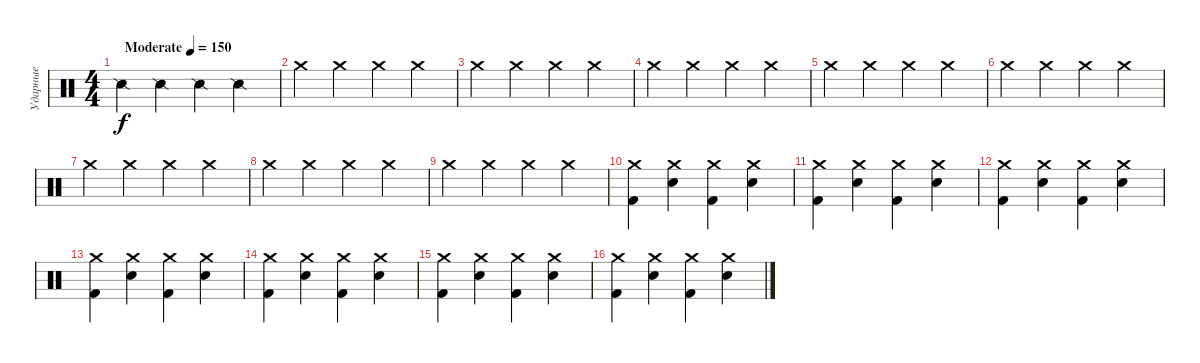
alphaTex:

\track ("Ударные" "Ударные") {instrument percussion}
\staff {score}
\articulation defaults
\ts (4 4)
\tempo (150 "Moderate")
\clef neutral
\ks c "Snare (side stick) 2".4{dy f} "Snare (side stick) 2".4 "Snare (side stick) 2".4 "Snare (side stick) 2".4
|
"Crash medium (hit)".4 "Crash medium (hit)".4 "Crash medium (hit)".4 "Crash medium (hit)".4 |
"Crash medium (hit)".4 "Crash medium (hit)".4 "Crash medium (hit)".4 "Crash medium (hit)".4 |
"Crash medium (hit)".4 "Crash medium (hit)".4 "Crash medium (hit)".4 "Crash medium (hit)".4 |
"Crash medium (hit)".4 "Crash medium (hit)".4 "Crash medium (hit)".4 "Crash medium (hit)".4 |
"Crash medium (hit)".4 "Crash medium (hit)".4 "Crash medium (hit)".4 "Crash medium (hit)".4 |
"Crash medium (hit)".4 "Crash medium (hit)".4 "Crash medium (hit)".4 "Crash medium (hit)".4 |
"Crash medium (hit)".4 "Crash medium (hit)".4 "Crash medium (hit)".4 "Crash medium (hit)".4 |
"Crash medium (hit)".4 "Crash medium (hit)".4 "Crash medium (hit)".4 "Crash medium (hit)".4 |
("Crash medium (hit)" "Kick (hit) 2").4 ("Crash medium (hit)" "Electric Snare (hit)").4 ("Crash medium (hit)" "Kick (hit) 2").4 ("Crash medium (hit)" "Electric Snare (hit)").4 |
("Crash medium (hit)" "Kick (hit) 2").4 ("Crash medium (hit)" "Electric Snare (hit)").4 ("Crash medium (hit)" "Kick (hit) 2").4 ("Crash medium (hit)" "Electric Snare (hit)").4 |
("Crash medium (hit)" "Kick (hit) 2").4 ("Crash medium (hit)" "Electric Snare (hit)").4 ("Crash medium (hit)" "Kick (hit) 2").4 ("Crash medium (hit)" "Electric Snare (hit)").4 |
("Crash medium (hit)" "Kick (hit) 2").4 ("Crash medium (hit)" "Electric Snare (hit)").4 ("Crash medium (hit)" "Kick (hit) 2").4 ("Crash medium (hit)" "Electric Snare (hit)").4 |
("Crash medium (hit)" "Kick (hit) 2").4 ("Crash medium (hit)" "Electric Snare (hit)").4 ("Crash medium (hit)" "Kick (hit) 2").4 ("Crash medium (hit)" "Electric Snare (hit)").4 |
("Crash medium (hit)" "Kick (hit) 2").4 ("Crash medium (hit)" "Electric Snare (hit)").4 ("Crash medium (hit)" "Kick (hit) 2").4 ("Crash medium (hit)" "Electric Snare (hit)").4 |
("Crash medium (hit)" "Kick (hit) 2").4 ("Crash medium (hit)" "Electric Snare (hit)").4 ("Crash medium (hit)" "Kick (hit) 2").4 ("Crash medium (hit)" "Electric Snare (hit)").4
